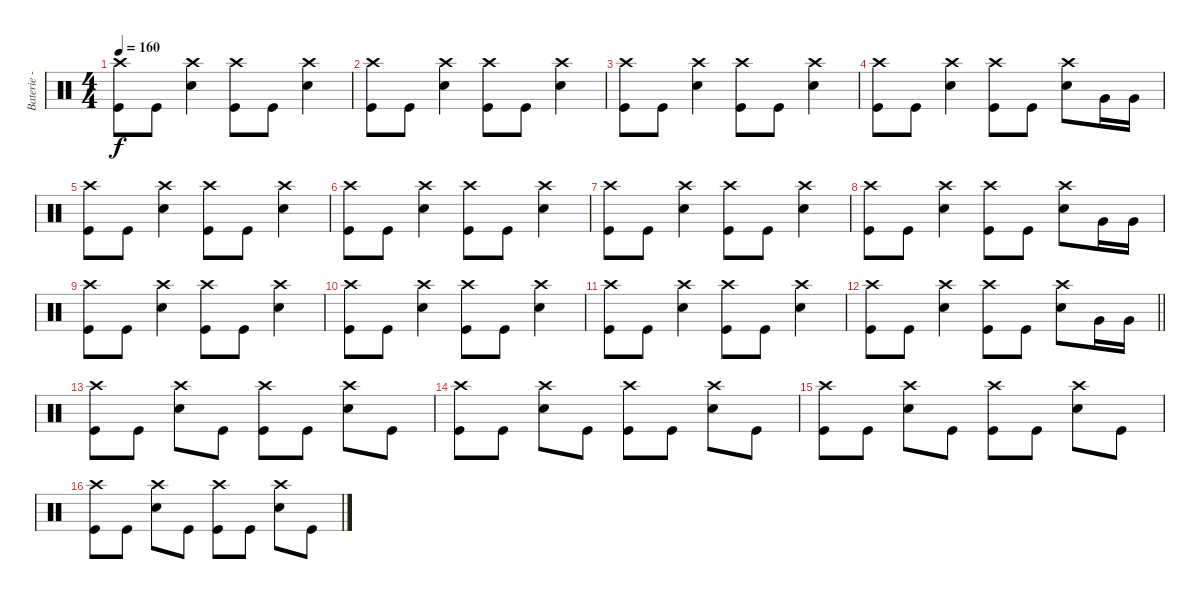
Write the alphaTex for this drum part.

\track ("Baterie - Alex" "Baterie - ") {instrument percussion}
\staff {score}
\articulation defaults
\ts (4 4)
\tempo 160
\clef neutral
\ks c
("Crash high (hit)" "Kick (hit)").8{dy f} "Kick (hit)".8 ("Crash high (hit)" "Electric Snare (hit)").4 ("Crash high (hit)" "Kick (hit)").8 "Kick (hit)".8 ("Crash high (hit)" "Electric Snare (hit)").4 |
("Crash high (hit)" "Kick (hit)").8 "Kick (hit)".8 ("Crash high (hit)" "Electric Snare (hit)").4 ("Crash high (hit)" "Kick (hit)").8 "Kick (hit)".8 ("Crash high (hit)" "Electric Snare (hit)").4 |
("Crash high (hit)" "Kick (hit)").8 "Kick (hit)".8 ("Crash high (hit)" "Electric Snare (hit)").4 ("Crash high (hit)" "Kick (hit)").8 "Kick (hit)".8 ("Crash high (hit)" "Electric Snare (hit)").4 |
("Crash high (hit)" "Kick (hit)").8 "Kick (hit)".8 ("Crash high (hit)" "Electric Snare (hit)").4 ("Crash high (hit)" "Kick (hit)").8 "Kick (hit)".8 ("Crash high (hit)" "Electric Snare (hit)").8 "Very Low Tom (hit)".16 "Very Low Tom (hit)".16 |
("Crash high (hit)" "Kick (hit)").8 "Kick (hit)".8 ("Crash high (hit)" "Electric Snare (hit)").4 ("Crash high (hit)" "Kick (hit)").8 "Kick (hit)".8 ("Crash high (hit)" "Electric Snare (hit)").4 |
("Crash high (hit)" "Kick (hit)").8 "Kick (hit)".8 ("Crash high (hit)" "Electric Snare (hit)").4 ("Crash high (hit)" "Kick (hit)").8 "Kick (hit)".8 ("Crash high (hit)" "Electric Snare (hit)").4 |
("Crash high (hit)" "Kick (hit)").8 "Kick (hit)".8 ("Crash high (hit)" "Electric Snare (hit)").4 ("Crash high (hit)" "Kick (hit)").8 "Kick (hit)".8 ("Crash high (hit)" "Electric Snare (hit)").4 |
("Crash high (hit)" "Kick (hit)").8 "Kick (hit)".8 ("Crash high (hit)" "Electric Snare (hit)").4 ("Crash high (hit)" "Kick (hit)").8 "Kick (hit)".8 ("Crash high (hit)" "Electric Snare (hit)").8 "Very Low Tom (hit)".16 "Very Low Tom (hit)".16 |
("Crash high (hit)" "Kick (hit)").8 "Kick (hit)".8 ("Crash high (hit)" "Electric Snare (hit)").4 ("Crash high (hit)" "Kick (hit)").8 "Kick (hit)".8 ("Crash high (hit)" "Electric Snare (hit)").4 |
("Crash high (hit)" "Kick (hit)").8 "Kick (hit)".8 ("Crash high (hit)" "Electric Snare (hit)").4 ("Crash high (hit)" "Kick (hit)").8 "Kick (hit)".8 ("Crash high (hit)" "Electric Snare (hit)").4 |
("Crash high (hit)" "Kick (hit)").8 "Kick (hit)".8 ("Crash high (hit)" "Electric Snare (hit)").4 ("Crash high (hit)" "Kick (hit)").8 "Kick (hit)".8 ("Crash high (hit)" "Electric Snare (hit)").4 |
\barLineRight lightlight
("Crash high (hit)" "Kick (hit)").8 "Kick (hit)".8 ("Crash high (hit)" "Electric Snare (hit)").4 ("Crash high (hit)" "Kick (hit)").8 "Kick (hit)".8 ("Crash high (hit)" "Electric Snare (hit)").8 "Very Low Tom (hit)".16 "Very Low Tom (hit)".16 |
\section ("" "")
("Crash high (hit)" "Kick (hit)").8 "Kick (hit)".8 ("Crash high (hit)" "Electric Snare (hit)").8 "Kick (hit)".8 ("Crash high (hit)" "Kick (hit)").8 "Kick (hit)".8 ("Crash high (hit)" "Electric Snare (hit)").8 "Kick (hit)".8 |
("Crash high (hit)" "Kick (hit)").8 "Kick (hit)".8 ("Crash high (hit)" "Electric Snare (hit)").8 "Kick (hit)".8 ("Crash high (hit)" "Kick (hit)").8 "Kick (hit)".8 ("Crash high (hit)" "Electric Snare (hit)").8 "Kick (hit)".8 |
("Crash high (hit)" "Kick (hit)").8 "Kick (hit)".8 ("Crash high (hit)" "Electric Snare (hit)").8 "Kick (hit)".8 ("Crash high (hit)" "Kick (hit)").8 "Kick (hit)".8 ("Crash high (hit)" "Electric Snare (hit)").8 "Kick (hit)".8 |
("Crash high (hit)" "Kick (hit)").8 "Kick (hit)".8 ("Crash high (hit)" "Electric Snare (hit)").8 "Kick (hit)".8 ("Crash high (hit)" "Kick (hit)").8 "Kick (hit)".8 ("Crash high (hit)" "Electric Snare (hit)").8 "Kick (hit)".8
